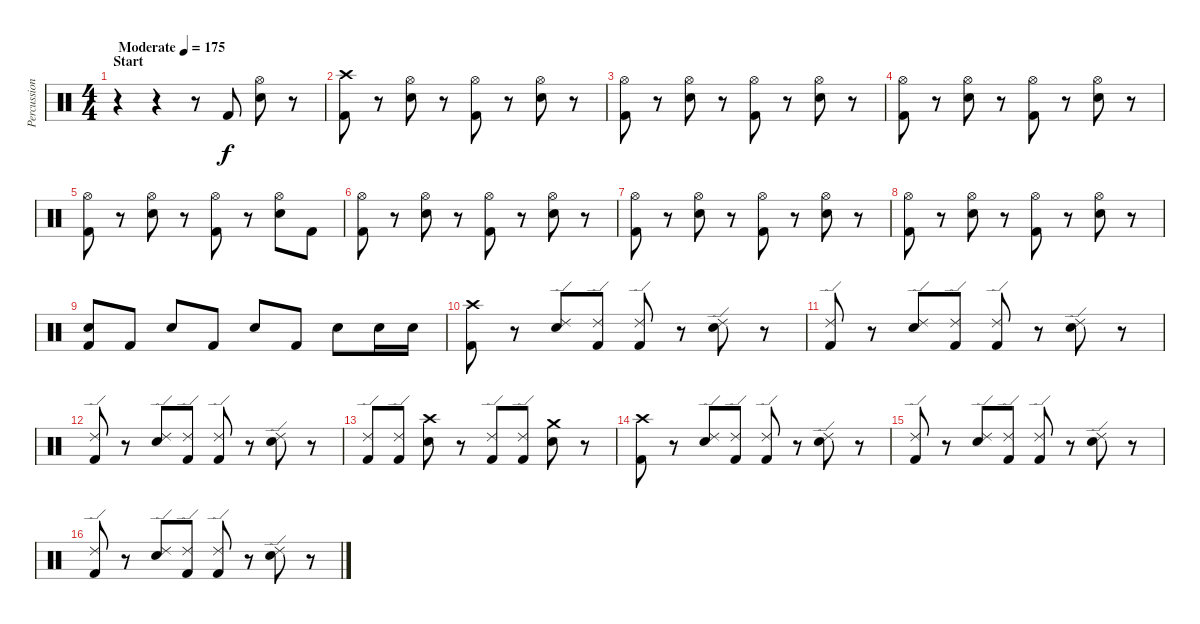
\track ("Percussion" "Percussion") {instrument percussion}
\staff {score}
\articulation defaults
\ts (4 4)
\section ("" "Start")
\tempo (175 "Moderate")
\clef neutral
\ks c
r.4{dy f} r.4 r.8 "Kick (hit) 2".8 ("Hi-Hat (open)" "Electric Snare (hit)").8 r.8 |
("Crash high (hit)" "Kick (hit) 2").8 r.8 ("Hi-Hat (open)" "Electric Snare (hit)").8 r.8 ("Hi-Hat (open)" "Kick (hit) 2").8 r.8 ("Hi-Hat (open)" "Electric Snare (hit)").8 r.8 |
("Hi-Hat (open)" "Kick (hit) 2").8 r.8 ("Hi-Hat (open)" "Electric Snare (hit)").8 r.8 ("Hi-Hat (open)" "Kick (hit) 2").8 r.8 ("Hi-Hat (open)" "Electric Snare (hit)").8 r.8 |
("Hi-Hat (open)" "Kick (hit) 2").8 r.8 ("Hi-Hat (open)" "Electric Snare (hit)").8 r.8 ("Hi-Hat (open)" "Kick (hit) 2").8 r.8 ("Hi-Hat (open)" "Electric Snare (hit)").8 r.8 |
("Hi-Hat (open)" "Kick (hit) 2").8 r.8 ("Hi-Hat (open)" "Electric Snare (hit)").8 r.8 ("Hi-Hat (open)" "Kick (hit) 2").8 r.8 ("Hi-Hat (open)" "Electric Snare (hit)").8 "Kick (hit) 2".8 |
("Hi-Hat (open)" "Kick (hit) 2").8 r.8 ("Hi-Hat (open)" "Electric Snare (hit)").8 r.8 ("Hi-Hat (open)" "Kick (hit) 2").8 r.8 ("Hi-Hat (open)" "Electric Snare (hit)").8 r.8 |
("Hi-Hat (open)" "Kick (hit) 2").8 r.8 ("Hi-Hat (open)" "Electric Snare (hit)").8 r.8 ("Hi-Hat (open)" "Kick (hit) 2").8 r.8 ("Hi-Hat (open)" "Electric Snare (hit)").8 r.8 |
("Hi-Hat (open)" "Kick (hit) 2").8 r.8 ("Hi-Hat (open)" "Electric Snare (hit)").8 r.8 ("Hi-Hat (open)" "Kick (hit) 2").8 r.8 ("Hi-Hat (open)" "Electric Snare (hit)").8 r.8 |
("Electric Snare (hit)" "Kick (hit) 2").8 "Kick (hit) 2".8 "Electric Snare (hit)".8 "Kick (hit) 2".8 "Electric Snare (hit)".8 "Kick (hit) 2".8 "Electric Snare (hit)".8 "Electric Snare (hit)".16 "Electric Snare (hit)".16 |
("Crash high (hit)" "Kick (hit) 2").8 r.8 ("Ride (edge) 2" "Electric Snare (hit)").8 ("Ride (edge) 2" "Kick (hit) 2").8 ("Ride (edge) 2" "Kick (hit) 2").8 r.8 ("Ride (edge) 2" "Electric Snare (hit)").8 r.8 |
("Ride (edge) 2" "Kick (hit) 2").8 r.8 ("Ride (edge) 2" "Electric Snare (hit)").8 ("Ride (edge) 2" "Kick (hit) 2").8 ("Ride (edge) 2" "Kick (hit) 2").8 r.8 ("Ride (edge) 2" "Electric Snare (hit)").8 r.8 |
("Ride (edge) 2" "Kick (hit) 2").8 r.8 ("Ride (edge) 2" "Electric Snare (hit)").8 ("Ride (edge) 2" "Kick (hit) 2").8 ("Ride (edge) 2" "Kick (hit) 2").8 r.8 ("Ride (edge) 2" "Electric Snare (hit)").8 r.8 |
("Ride (edge) 2" "Kick (hit) 2").8 ("Ride (edge) 2" "Kick (hit) 2").8 ("Crash high (hit)" "Electric Snare (hit)").8 r.8 ("Ride (edge) 2" "Kick (hit) 2").8 ("Ride (edge) 2" "Kick (hit) 2").8 ("Crash medium (hit)" "Electric Snare (hit)").8 r.8 |
("Crash high (hit)" "Kick (hit) 2").8 r.8 ("Ride (edge) 2" "Electric Snare (hit)").8 ("Ride (edge) 2" "Kick (hit) 2").8 ("Ride (edge) 2" "Kick (hit) 2").8 r.8 ("Ride (edge) 2" "Electric Snare (hit)").8 r.8 |
("Ride (edge) 2" "Kick (hit) 2").8 r.8 ("Ride (edge) 2" "Electric Snare (hit)").8 ("Ride (edge) 2" "Kick (hit) 2").8 ("Ride (edge) 2" "Kick (hit) 2").8 r.8 ("Ride (edge) 2" "Electric Snare (hit)").8 r.8 |
("Ride (edge) 2" "Kick (hit) 2").8 r.8 ("Ride (edge) 2" "Electric Snare (hit)").8 ("Ride (edge) 2" "Kick (hit) 2").8 ("Ride (edge) 2" "Kick (hit) 2").8 r.8 ("Ride (edge) 2" "Electric Snare (hit)").8 r.8
